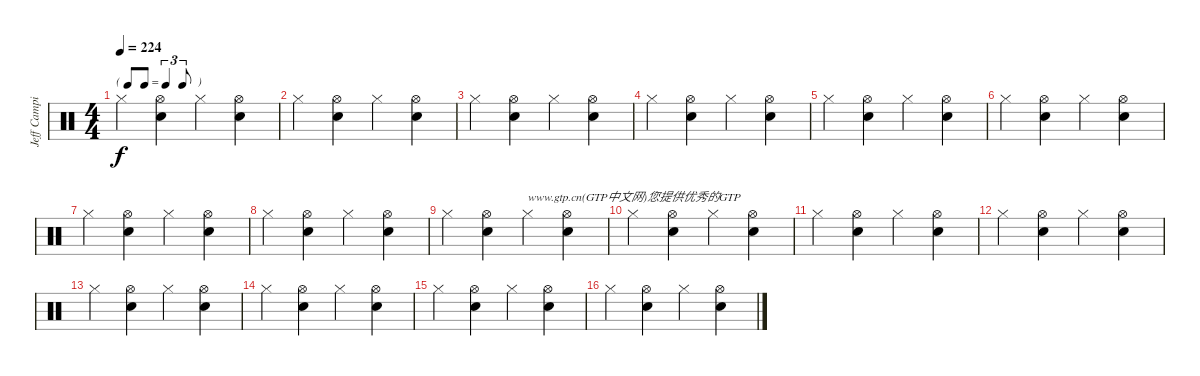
\track ("Jeff Campitelli" "Jeff Campi") {instrument percussion}
\staff {score}
\articulation defaults
\ts (4 4)
\tf triplet8th
\tempo 224
\clef neutral
\ks c "Hi-Hat (closed)".4{dy f}
("Snare (hit) 2" "Hi-Hat (open)").4 "Hi-Hat (closed)".4 ("Snare (hit) 2" "Hi-Hat (open)").4 |
"Hi-Hat (closed)".4 ("Snare (hit) 2" "Hi-Hat (open)").4 "Hi-Hat (closed)".4 ("Snare (hit) 2" "Hi-Hat (open)").4 |
"Hi-Hat (closed)".4 ("Snare (hit) 2" "Hi-Hat (open)").4 "Hi-Hat (closed)".4 ("Snare (hit) 2" "Hi-Hat (open)").4 |
"Hi-Hat (closed)".4 ("Snare (hit) 2" "Hi-Hat (open)").4 "Hi-Hat (closed)".4 ("Snare (hit) 2" "Hi-Hat (open)").4 |
"Hi-Hat (closed)".4 ("Snare (hit) 2" "Hi-Hat (open)").4 "Hi-Hat (closed)".4 ("Snare (hit) 2" "Hi-Hat (open)").4 |
"Hi-Hat (closed)".4 ("Snare (hit) 2" "Hi-Hat (open)").4 "Hi-Hat (closed)".4 ("Snare (hit) 2" "Hi-Hat (open)").4 |
"Hi-Hat (closed)".4 ("Snare (hit) 2" "Hi-Hat (open)").4 "Hi-Hat (closed)".4 ("Snare (hit) 2" "Hi-Hat (open)").4 |
"Hi-Hat (closed)".4 ("Snare (hit) 2" "Hi-Hat (open)").4 "Hi-Hat (closed)".4 ("Snare (hit) 2" "Hi-Hat (open)").4 |
"Hi-Hat (closed)".4 ("Snare (hit) 2" "Hi-Hat (open)").4 "Hi-Hat (closed)".4{txt "www.gtp.cn(GTP中文网)您提供优秀的GTP"} ("Snare (hit) 2" "Hi-Hat (open)").4 |
"Hi-Hat (closed)".4 ("Snare (hit) 2" "Hi-Hat (open)").4 "Hi-Hat (closed)".4 ("Snare (hit) 2" "Hi-Hat (open)").4 |
"Hi-Hat (closed)".4 ("Snare (hit) 2" "Hi-Hat (open)").4 "Hi-Hat (closed)".4 ("Snare (hit) 2" "Hi-Hat (open)").4 |
"Hi-Hat (closed)".4 ("Snare (hit) 2" "Hi-Hat (open)").4 "Hi-Hat (closed)".4 ("Snare (hit) 2" "Hi-Hat (open)").4 |
"Hi-Hat (closed)".4 ("Snare (hit) 2" "Hi-Hat (open)").4 "Hi-Hat (closed)".4 ("Snare (hit) 2" "Hi-Hat (open)").4 |
"Hi-Hat (closed)".4 ("Snare (hit) 2" "Hi-Hat (open)").4 "Hi-Hat (closed)".4 ("Snare (hit) 2" "Hi-Hat (open)").4 |
"Hi-Hat (closed)".4 ("Snare (hit) 2" "Hi-Hat (open)").4 "Hi-Hat (closed)".4 ("Snare (hit) 2" "Hi-Hat (open)").4 |
"Hi-Hat (closed)".4 ("Snare (hit) 2" "Hi-Hat (open)").4 "Hi-Hat (closed)".4 ("Snare (hit) 2" "Hi-Hat (open)").4
